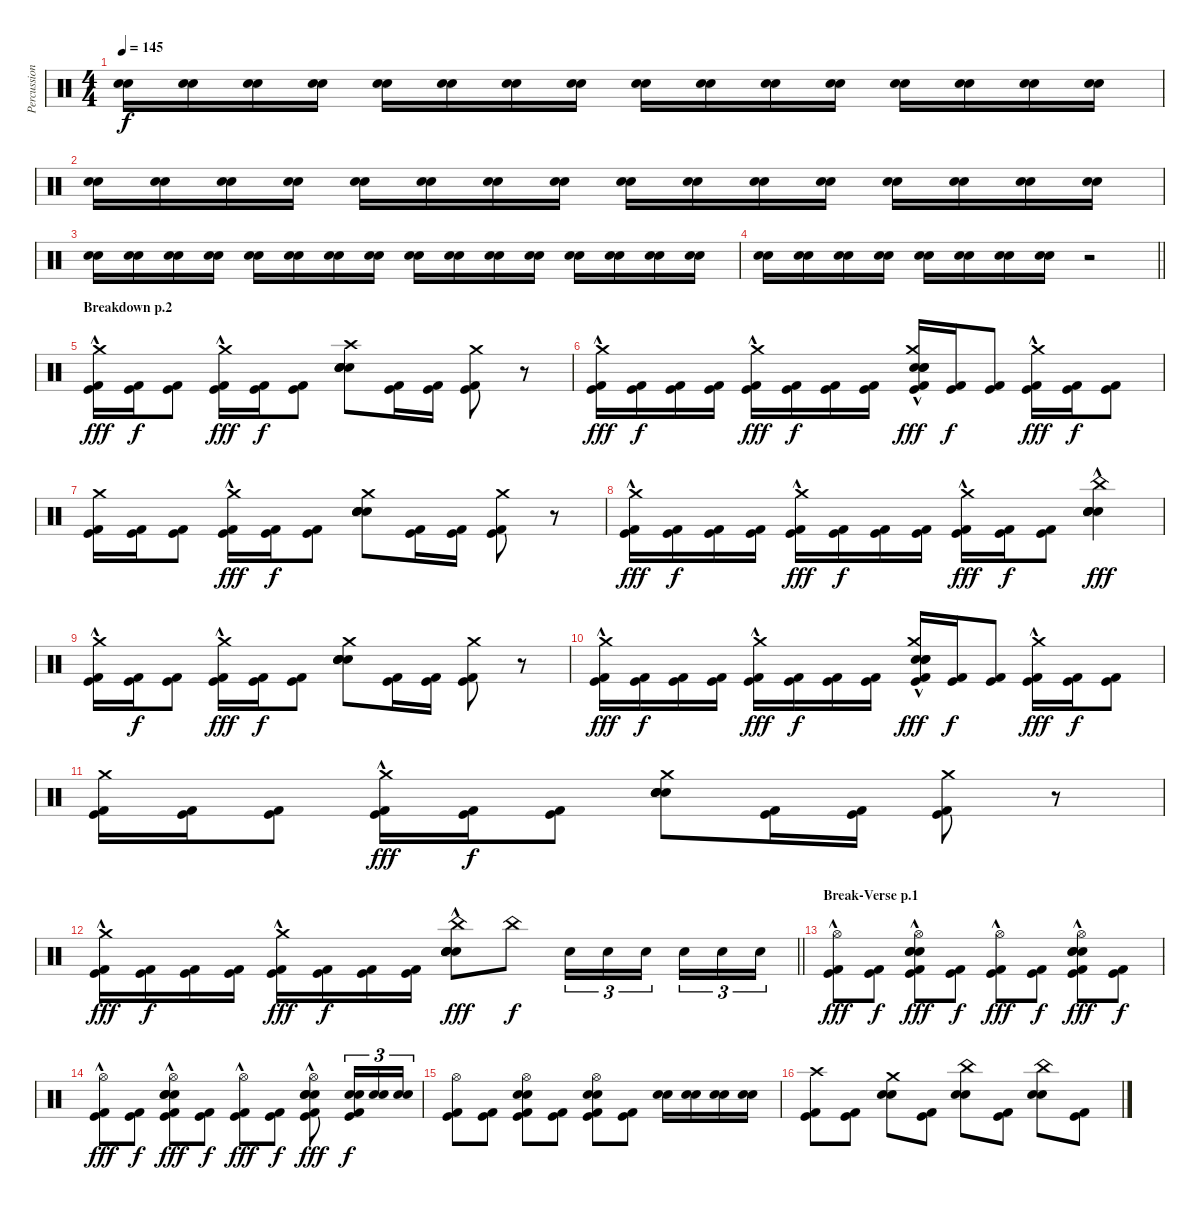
\track ("Percussion" "Percussion") {instrument percussion}
\staff {score}
\articulation defaults
\ts (4 4)
\tempo 145
\clef neutral
\ks c
("Electric Snare (hit)" "Snare (hit) 2").16{dy f volume 10} ("Electric Snare (hit)" "Snare (hit) 2").16 ("Electric Snare (hit)" "Snare (hit) 2").16 ("Electric Snare (hit)" "Snare (hit) 2").16 ("Electric Snare (hit)" "Snare (hit) 2").16 ("Electric Snare (hit)" "Snare (hit) 2").16 ("Electric Snare (hit)" "Snare (hit) 2").16 ("Electric Snare (hit)" "Snare (hit) 2").16 ("Electric Snare (hit)" "Snare (hit) 2").16 ("Electric Snare (hit)" "Snare (hit) 2").16 ("Electric Snare (hit)" "Snare (hit) 2").16 ("Electric Snare (hit)" "Snare (hit) 2").16 ("Electric Snare (hit)" "Snare (hit) 2").16 ("Electric Snare (hit)" "Snare (hit) 2").16 ("Electric Snare (hit)" "Snare (hit) 2").16 ("Electric Snare (hit)" "Snare (hit) 2").16 |
("Electric Snare (hit)" "Snare (hit) 2").16 ("Electric Snare (hit)" "Snare (hit) 2").16 ("Electric Snare (hit)" "Snare (hit) 2").16 ("Electric Snare (hit)" "Snare (hit) 2").16 ("Electric Snare (hit)" "Snare (hit) 2").16 ("Electric Snare (hit)" "Snare (hit) 2").16 ("Electric Snare (hit)" "Snare (hit) 2").16 ("Electric Snare (hit)" "Snare (hit) 2").16 ("Electric Snare (hit)" "Snare (hit) 2").16 ("Electric Snare (hit)" "Snare (hit) 2").16 ("Electric Snare (hit)" "Snare (hit) 2").16 ("Electric Snare (hit)" "Snare (hit) 2").16 ("Electric Snare (hit)" "Snare (hit) 2").16 ("Electric Snare (hit)" "Snare (hit) 2").16 ("Electric Snare (hit)" "Snare (hit) 2").16 ("Electric Snare (hit)" "Snare (hit) 2").16 |
("Electric Snare (hit)" "Snare (hit) 2").16 ("Electric Snare (hit)" "Snare (hit) 2").16 ("Electric Snare (hit)" "Snare (hit) 2").16 ("Electric Snare (hit)" "Snare (hit) 2").16 ("Electric Snare (hit)" "Snare (hit) 2").16 ("Electric Snare (hit)" "Snare (hit) 2").16 ("Electric Snare (hit)" "Snare (hit) 2").16 ("Electric Snare (hit)" "Snare (hit) 2").16 ("Electric Snare (hit)" "Snare (hit) 2").16 ("Electric Snare (hit)" "Snare (hit) 2").16 ("Electric Snare (hit)" "Snare (hit) 2").16 ("Electric Snare (hit)" "Snare (hit) 2").16 ("Electric Snare (hit)" "Snare (hit) 2").16 ("Electric Snare (hit)" "Snare (hit) 2").16 ("Electric Snare (hit)" "Snare (hit) 2").16 ("Electric Snare (hit)" "Snare (hit) 2").16 |
\barLineRight lightlight
("Electric Snare (hit)" "Snare (hit) 2").16 ("Electric Snare (hit)" "Snare (hit) 2").16 ("Electric Snare (hit)" "Snare (hit) 2").16 ("Electric Snare (hit)" "Snare (hit) 2").16 ("Electric Snare (hit)" "Snare (hit) 2").16 ("Electric Snare (hit)" "Snare (hit) 2").16 ("Electric Snare (hit)" "Snare (hit) 2").16 ("Electric Snare (hit)" "Snare (hit) 2").16 r.2 |
\section ("" "Breakdown p.2")
("Crash medium (hit)"{hac} "Kick (hit)" "Kick (hit) 2").16{dy fff volume 15} ("Kick (hit)" "Kick (hit) 2").16{dy f} ("Kick (hit)" "Kick (hit) 2").8 ("Crash medium (hit)"{hac} "Kick (hit)" "Kick (hit) 2").16{dy fff} ("Kick (hit)" "Kick (hit) 2").16{dy f} ("Kick (hit)" "Kick (hit) 2").8 ("Crash high (hit)" "Electric Snare (hit)" "Snare (hit) 2" "Electric Snare (hit)" "Snare (hit) 2").8 ("Kick (hit)" "Kick (hit) 2").16 ("Kick (hit)" "Kick (hit) 2").16 ("Crash medium (hit)" "Kick (hit)" "Kick (hit) 2").8 r.8 |
("Crash medium (hit)"{hac} "Kick (hit)" "Kick (hit) 2").16{dy fff} ("Kick (hit)" "Kick (hit) 2").16{dy f} ("Kick (hit)" "Kick (hit) 2").16 ("Kick (hit)" "Kick (hit) 2").16 ("Crash medium (hit)"{hac} "Kick (hit)" "Kick (hit) 2").16{dy fff} ("Kick (hit)" "Kick (hit) 2").16{dy f} ("Kick (hit)" "Kick (hit) 2").16 ("Kick (hit)" "Kick (hit) 2").16 ("Crash medium (hit)"{hac} "Electric Snare (hit)" "Snare (hit) 2" "Electric Snare (hit)" "Kick (hit)" "Kick (hit) 2").16{dy fff volume 15} ("Kick (hit)" "Kick (hit) 2").16{dy f} ("Kick (hit)" "Kick (hit) 2").8 ("Crash medium (hit)"{hac} "Kick (hit)" "Kick (hit) 2").16{dy fff} ("Kick (hit)" "Kick (hit) 2").16{dy f} ("Kick (hit)" "Kick (hit) 2").8 |
("Crash medium (hit)" "Kick (hit)" "Kick (hit) 2").16{volume 15} ("Kick (hit)" "Kick (hit) 2").16 ("Kick (hit)" "Kick (hit) 2").8 ("Crash medium (hit)"{hac} "Kick (hit)" "Kick (hit) 2").16{dy fff} ("Kick (hit)" "Kick (hit) 2").16{dy f} ("Kick (hit)" "Kick (hit) 2").8 ("Crash medium (hit)" "Electric Snare (hit)" "Snare (hit) 2" "Electric Snare (hit)" "Snare (hit) 2").8 ("Kick (hit)" "Kick (hit) 2").16 ("Kick (hit)" "Kick (hit) 2").16 ("Crash medium (hit)" "Kick (hit)" "Kick (hit) 2").8 r.8 |
("Crash medium (hit)"{hac} "Kick (hit)" "Kick (hit) 2").16{dy fff} ("Kick (hit)" "Kick (hit) 2").16{dy f} ("Kick (hit)" "Kick (hit) 2").16 ("Kick (hit)" "Kick (hit) 2").16 ("Crash medium (hit)"{hac} "Kick (hit)" "Kick (hit) 2").16{dy fff} ("Kick (hit)" "Kick (hit) 2").16{dy f} ("Kick (hit)" "Kick (hit) 2").16 ("Kick (hit)" "Kick (hit) 2").16 ("Crash medium (hit)"{hac} "Kick (hit)" "Kick (hit) 2").16{dy fff volume 15} ("Kick (hit)" "Kick (hit) 2").16{dy f} ("Kick (hit)" "Kick (hit) 2").8 ("China (hit)"{hac} "Snare (hit) 2" "Electric Snare (hit)" "Electric Snare (hit)" "Snare (hit) 2").4{dy fff} |
("Crash medium (hit)"{hac} "Kick (hit)" "Kick (hit) 2").16{volume 15} ("Kick (hit)" "Kick (hit) 2").16{dy f} ("Kick (hit)" "Kick (hit) 2").8 ("Crash medium (hit)"{hac} "Kick (hit)" "Kick (hit) 2").16{dy fff} ("Kick (hit)" "Kick (hit) 2").16{dy f} ("Kick (hit)" "Kick (hit) 2").8 ("Crash medium (hit)" "Electric Snare (hit)" "Snare (hit) 2" "Electric Snare (hit)" "Snare (hit) 2").8 ("Kick (hit)" "Kick (hit) 2").16 ("Kick (hit)" "Kick (hit) 2").16 ("Crash medium (hit)" "Kick (hit)" "Kick (hit) 2").8 r.8 |
("Crash medium (hit)"{hac} "Kick (hit)" "Kick (hit) 2").16{dy fff} ("Kick (hit)" "Kick (hit) 2").16{dy f} ("Kick (hit)" "Kick (hit) 2").16 ("Kick (hit)" "Kick (hit) 2").16 ("Crash medium (hit)"{hac} "Kick (hit)" "Kick (hit) 2").16{dy fff} ("Kick (hit)" "Kick (hit) 2").16{dy f} ("Kick (hit)" "Kick (hit) 2").16 ("Kick (hit)" "Kick (hit) 2").16 ("Crash medium (hit)"{hac} "Electric Snare (hit)" "Snare (hit) 2" "Electric Snare (hit)" "Kick (hit)" "Kick (hit) 2").16{dy fff volume 15} ("Kick (hit)" "Kick (hit) 2").16{dy f} ("Kick (hit)" "Kick (hit) 2").8 ("Crash medium (hit)"{hac} "Kick (hit)" "Kick (hit) 2").16{dy fff} ("Kick (hit)" "Kick (hit) 2").16{dy f} ("Kick (hit)" "Kick (hit) 2").8 |
("Crash medium (hit)" "Kick (hit)" "Kick (hit) 2").16{volume 15} ("Kick (hit)" "Kick (hit) 2").16 ("Kick (hit)" "Kick (hit) 2").8 ("Crash medium (hit)"{hac} "Kick (hit)" "Kick (hit) 2").16{dy fff} ("Kick (hit)" "Kick (hit) 2").16{dy f} ("Kick (hit)" "Kick (hit) 2").8 ("Crash medium (hit)" "Electric Snare (hit)" "Snare (hit) 2" "Electric Snare (hit)" "Snare (hit) 2").8 ("Kick (hit)" "Kick (hit) 2").16 ("Kick (hit)" "Kick (hit) 2").16 ("Crash medium (hit)" "Kick (hit)" "Kick (hit) 2").8 r.8 |
\barLineRight lightlight
("Crash medium (hit)"{hac} "Kick (hit)" "Kick (hit) 2").16{dy fff} ("Kick (hit)" "Kick (hit) 2").16{dy f} ("Kick (hit)" "Kick (hit) 2").16 ("Kick (hit)" "Kick (hit) 2").16 ("Crash medium (hit)"{hac} "Kick (hit)" "Kick (hit) 2").16{dy fff} ("Kick (hit)" "Kick (hit) 2").16{dy f} ("Kick (hit)" "Kick (hit) 2").16 ("Kick (hit)" "Kick (hit) 2").16 ("China (hit)"{hac} "Snare (hit) 2" "Electric Snare (hit)" "Electric Snare (hit)" "Snare (hit) 2").8{dy fff} "China (hit)".8{dy f} "Electric Snare (hit)".16{tu (3 2)} "Electric Snare (hit)".16{tu (3 2)} "Electric Snare (hit)".16{tu (3 2) beam splitsecondary} "Electric Snare (hit)".16{tu (3 2)} "Electric Snare (hit)".16{tu (3 2)} "Electric Snare (hit)".16{tu (3 2)} |
\section ("" "Break-Verse p.1")
("Hi-Hat (open)"{hac} "Kick (hit)" "Kick (hit) 2").8{dy fff} ("Kick (hit)" "Kick (hit) 2").8{dy f} ("Hi-Hat (open)"{hac} "Electric Snare (hit)" "Snare (hit) 2" "Electric Snare (hit)" "Kick (hit)" "Kick (hit) 2").8{dy fff} ("Kick (hit)" "Kick (hit) 2").8{dy f} ("Hi-Hat (open)"{hac} "Kick (hit)" "Kick (hit) 2").8{dy fff} ("Kick (hit)" "Kick (hit) 2").8{dy f} ("Hi-Hat (open)"{hac} "Electric Snare (hit)" "Electric Snare (hit)" "Snare (hit) 2" "Kick (hit)" "Kick (hit) 2").8{dy fff} ("Kick (hit)" "Kick (hit) 2").8{dy f} |
("Hi-Hat (open)"{hac} "Kick (hit)" "Kick (hit) 2").8{dy fff} ("Kick (hit)" "Kick (hit) 2").8{dy f} ("Hi-Hat (open)"{hac} "Electric Snare (hit)" "Snare (hit) 2" "Electric Snare (hit)" "Kick (hit)" "Kick (hit) 2").8{dy fff} ("Kick (hit)" "Kick (hit) 2").8{dy f} ("Hi-Hat (open)"{hac} "Kick (hit)" "Kick (hit) 2").8{dy fff} ("Kick (hit)" "Kick (hit) 2").8{dy f} ("Hi-Hat (open)"{hac} "Electric Snare (hit)" "Electric Snare (hit)" "Snare (hit) 2" "Kick (hit)" "Kick (hit) 2").8{dy fff} ("Electric Snare (hit)" "Snare (hit) 2" "Kick (hit)" "Kick (hit) 2").16{tu (3 2) dy f} ("Electric Snare (hit)" "Snare (hit) 2").16{tu (3 2)} ("Electric Snare (hit)" "Snare (hit) 2").16{tu (3 2)} |
("Hi-Hat (open)" "Kick (hit) 2" "Kick (hit)").8 ("Kick (hit)" "Kick (hit) 2").8 ("Hi-Hat (open)" "Electric Snare (hit)" "Snare (hit) 2" "Kick (hit)" "Kick (hit) 2").8 ("Kick (hit)" "Kick (hit) 2").8 ("Hi-Hat (open)" "Electric Snare (hit)" "Snare (hit) 2" "Kick (hit)" "Kick (hit) 2").8 ("Kick (hit)" "Kick (hit) 2").8 ("Electric Snare (hit)" "Snare (hit) 2").16 ("Electric Snare (hit)" "Snare (hit) 2").16 ("Electric Snare (hit)" "Snare (hit) 2").16 ("Electric Snare (hit)" "Snare (hit) 2").16 |
("Crash high (hit)" "Kick (hit)" "Kick (hit) 2").8 ("Kick (hit)" "Kick (hit) 2").8 ("Crash medium (hit)" "Electric Snare (hit)" "Snare (hit) 2").8 ("Kick (hit)" "Kick (hit) 2").8 ("China (hit)" "Electric Snare (hit)" "Snare (hit) 2").8 ("Kick (hit)" "Kick (hit) 2").8 ("China (hit)" "Electric Snare (hit)" "Snare (hit) 2").8 ("Kick (hit)" "Kick (hit) 2").8
